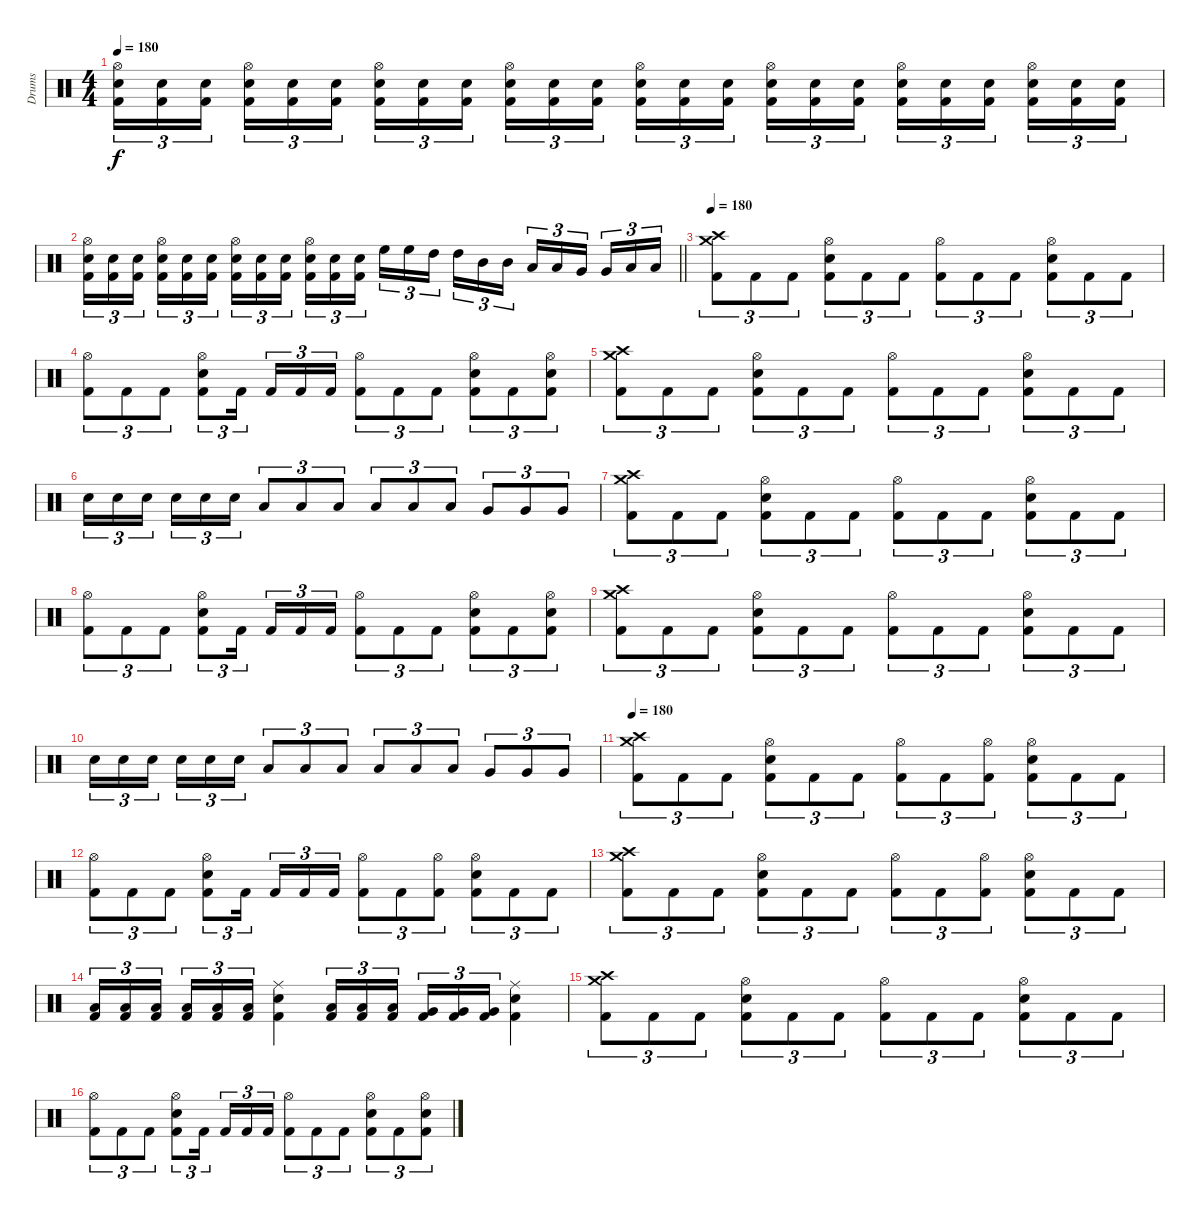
\track ("Drums" "Drums") {instrument percussion}
\staff {score}
\articulation defaults
\ts (4 4)
\tempo 180
\clef neutral
\ks c
("Hi-Hat (open)" "Electric Snare (hit)" "Kick (hit) 2").16{tu (3 2) dy f} ("Electric Snare (hit)" "Kick (hit) 2").16{tu (3 2)} ("Electric Snare (hit)" "Kick (hit) 2").16{tu (3 2) beam splitsecondary} ("Hi-Hat (open)" "Electric Snare (hit)" "Kick (hit) 2").16{tu (3 2)} ("Electric Snare (hit)" "Kick (hit) 2").16{tu (3 2)} ("Electric Snare (hit)" "Kick (hit) 2").16{tu (3 2)} ("Hi-Hat (open)" "Electric Snare (hit)" "Kick (hit) 2").16{tu (3 2)} ("Electric Snare (hit)" "Kick (hit) 2").16{tu (3 2)} ("Electric Snare (hit)" "Kick (hit) 2").16{tu (3 2) beam splitsecondary} ("Hi-Hat (open)" "Electric Snare (hit)" "Kick (hit) 2").16{tu (3 2)} ("Electric Snare (hit)" "Kick (hit) 2").16{tu (3 2)} ("Electric Snare (hit)" "Kick (hit) 2").16{tu (3 2)} ("Hi-Hat (open)" "Electric Snare (hit)" "Kick (hit) 2").16{tu (3 2)} ("Electric Snare (hit)" "Kick (hit) 2").16{tu (3 2)} ("Electric Snare (hit)" "Kick (hit) 2").16{tu (3 2) beam splitsecondary} ("Hi-Hat (open)" "Electric Snare (hit)" "Kick (hit) 2").16{tu (3 2)} ("Electric Snare (hit)" "Kick (hit) 2").16{tu (3 2)} ("Electric Snare (hit)" "Kick (hit) 2").16{tu (3 2)} ("Hi-Hat (open)" "Electric Snare (hit)" "Kick (hit) 2").16{tu (3 2)} ("Electric Snare (hit)" "Kick (hit) 2").16{tu (3 2)} ("Electric Snare (hit)" "Kick (hit) 2").16{tu (3 2) beam splitsecondary} ("Hi-Hat (open)" "Electric Snare (hit)" "Kick (hit) 2").16{tu (3 2)} ("Electric Snare (hit)" "Kick (hit) 2").16{tu (3 2)} ("Electric Snare (hit)" "Kick (hit) 2").16{tu (3 2)} |
\barLineRight lightlight
("Hi-Hat (open)" "Electric Snare (hit)" "Kick (hit) 2").16{tu (3 2)} ("Electric Snare (hit)" "Kick (hit) 2").16{tu (3 2)} ("Electric Snare (hit)" "Kick (hit) 2").16{tu (3 2) beam splitsecondary} ("Hi-Hat (open)" "Electric Snare (hit)" "Kick (hit) 2").16{tu (3 2)} ("Electric Snare (hit)" "Kick (hit) 2").16{tu (3 2)} ("Electric Snare (hit)" "Kick (hit) 2").16{tu (3 2)} ("Hi-Hat (open)" "Electric Snare (hit)" "Kick (hit) 2").16{tu (3 2)} ("Electric Snare (hit)" "Kick (hit) 2").16{tu (3 2)} ("Electric Snare (hit)" "Kick (hit) 2").16{tu (3 2) beam splitsecondary} ("Hi-Hat (open)" "Electric Snare (hit)" "Kick (hit) 2").16{tu (3 2)} ("Electric Snare (hit)" "Kick (hit) 2").16{tu (3 2)} ("Electric Snare (hit)" "Kick (hit) 2").16{tu (3 2)} "High Floor Tom (hit)".16{tu (3 2)} "High Floor Tom (hit)".16{tu (3 2)} "High Tom (hit)".16{tu (3 2) beam splitsecondary} "High Tom (hit)".16{tu (3 2)} "Mid Tom (hit)".16{tu (3 2)} "Mid Tom (hit)".16{tu (3 2)} "Low Tom (hit)".16{tu (3 2)} "Low Tom (hit)".16{tu (3 2)} "Very Low Tom (hit)".16{tu (3 2) beam splitsecondary} "Very Low Tom (hit)".16{tu (3 2)} "Low Floor Tom (hit)".16{tu (3 2)} "Low Floor Tom (hit)".16{tu (3 2)} |
\section ("" "")
\tempo 180
("Crash medium (hit)" "Crash high (hit)" "Kick (hit) 2").8{tu (3 2)} "Kick (hit) 2".8{tu (3 2)} "Kick (hit) 2".8{tu (3 2)} ("Hi-Hat (open)" "Electric Snare (hit)" "Kick (hit) 2").8{tu (3 2)} "Kick (hit) 2".8{tu (3 2)} "Kick (hit) 2".8{tu (3 2)} ("Hi-Hat (open)" "Kick (hit) 2").8{tu (3 2)} "Kick (hit) 2".8{tu (3 2)} "Kick (hit) 2".8{tu (3 2)} ("Hi-Hat (open)" "Electric Snare (hit)" "Kick (hit) 2").8{tu (3 2)} "Kick (hit) 2".8{tu (3 2)} "Kick (hit) 2".8{tu (3 2)} |
("Hi-Hat (open)" "Kick (hit) 2").8{tu (3 2)} "Kick (hit) 2".8{tu (3 2)} "Kick (hit) 2".8{tu (3 2)} ("Hi-Hat (open)" "Electric Snare (hit)" "Kick (hit) 2").8{tu (3 2)} "Kick (hit) 2".16{tu (3 2) beam splitsecondary} "Kick (hit) 2".16{tu (3 2)} "Kick (hit) 2".16{tu (3 2)} "Kick (hit) 2".16{tu (3 2)} ("Hi-Hat (open)" "Kick (hit) 2").8{tu (3 2)} "Kick (hit) 2".8{tu (3 2)} "Kick (hit) 2".8{tu (3 2)} ("Hi-Hat (open)" "Electric Snare (hit)" "Kick (hit) 2").8{tu (3 2)} "Kick (hit) 2".8{tu (3 2)} ("Hi-Hat (open)" "Electric Snare (hit)" "Kick (hit) 2").8{tu (3 2)} |
("Crash medium (hit)" "Crash high (hit)" "Kick (hit) 2").8{tu (3 2)} "Kick (hit) 2".8{tu (3 2)} "Kick (hit) 2".8{tu (3 2)} ("Hi-Hat (open)" "Electric Snare (hit)" "Kick (hit) 2").8{tu (3 2)} "Kick (hit) 2".8{tu (3 2)} "Kick (hit) 2".8{tu (3 2)} ("Hi-Hat (open)" "Kick (hit) 2").8{tu (3 2)} "Kick (hit) 2".8{tu (3 2)} "Kick (hit) 2".8{tu (3 2)} ("Hi-Hat (open)" "Electric Snare (hit)" "Kick (hit) 2").8{tu (3 2)} "Kick (hit) 2".8{tu (3 2)} "Kick (hit) 2".8{tu (3 2)} |
"Electric Snare (hit)".16{tu (3 2)} "Electric Snare (hit)".16{tu (3 2)} "Electric Snare (hit)".16{tu (3 2) beam splitsecondary} "Electric Snare (hit)".16{tu (3 2)} "Electric Snare (hit)".16{tu (3 2)} "Electric Snare (hit)".16{tu (3 2)} "Low Floor Tom (hit)".8{tu (3 2)} "Low Floor Tom (hit)".8{tu (3 2)} "Low Floor Tom (hit)".8{tu (3 2)} "Low Tom (hit)".8{tu (3 2)} "Low Tom (hit)".8{tu (3 2)} "Low Tom (hit)".8{tu (3 2)} "Very Low Tom (hit)".8{tu (3 2)} "Very Low Tom (hit)".8{tu (3 2)} "Very Low Tom (hit)".8{tu (3 2)} |
("Crash medium (hit)" "Crash high (hit)" "Kick (hit) 2").8{tu (3 2)} "Kick (hit) 2".8{tu (3 2)} "Kick (hit) 2".8{tu (3 2)} ("Hi-Hat (open)" "Electric Snare (hit)" "Kick (hit) 2").8{tu (3 2)} "Kick (hit) 2".8{tu (3 2)} "Kick (hit) 2".8{tu (3 2)} ("Hi-Hat (open)" "Kick (hit) 2").8{tu (3 2)} "Kick (hit) 2".8{tu (3 2)} "Kick (hit) 2".8{tu (3 2)} ("Hi-Hat (open)" "Electric Snare (hit)" "Kick (hit) 2").8{tu (3 2)} "Kick (hit) 2".8{tu (3 2)} "Kick (hit) 2".8{tu (3 2)} |
("Hi-Hat (open)" "Kick (hit) 2").8{tu (3 2)} "Kick (hit) 2".8{tu (3 2)} "Kick (hit) 2".8{tu (3 2)} ("Hi-Hat (open)" "Electric Snare (hit)" "Kick (hit) 2").8{tu (3 2)} "Kick (hit) 2".16{tu (3 2) beam splitsecondary} "Kick (hit) 2".16{tu (3 2)} "Kick (hit) 2".16{tu (3 2)} "Kick (hit) 2".16{tu (3 2)} ("Hi-Hat (open)" "Kick (hit) 2").8{tu (3 2)} "Kick (hit) 2".8{tu (3 2)} "Kick (hit) 2".8{tu (3 2)} ("Hi-Hat (open)" "Electric Snare (hit)" "Kick (hit) 2").8{tu (3 2)} "Kick (hit) 2".8{tu (3 2)} ("Hi-Hat (open)" "Electric Snare (hit)" "Kick (hit) 2").8{tu (3 2)} |
("Crash medium (hit)" "Crash high (hit)" "Kick (hit) 2").8{tu (3 2)} "Kick (hit) 2".8{tu (3 2)} "Kick (hit) 2".8{tu (3 2)} ("Hi-Hat (open)" "Electric Snare (hit)" "Kick (hit) 2").8{tu (3 2)} "Kick (hit) 2".8{tu (3 2)} "Kick (hit) 2".8{tu (3 2)} ("Hi-Hat (open)" "Kick (hit) 2").8{tu (3 2)} "Kick (hit) 2".8{tu (3 2)} "Kick (hit) 2".8{tu (3 2)} ("Hi-Hat (open)" "Electric Snare (hit)" "Kick (hit) 2").8{tu (3 2)} "Kick (hit) 2".8{tu (3 2)} "Kick (hit) 2".8{tu (3 2)} |
"Electric Snare (hit)".16{tu (3 2)} "Electric Snare (hit)".16{tu (3 2)} "Electric Snare (hit)".16{tu (3 2) beam splitsecondary} "Electric Snare (hit)".16{tu (3 2)} "Electric Snare (hit)".16{tu (3 2)} "Electric Snare (hit)".16{tu (3 2)} "Low Floor Tom (hit)".8{tu (3 2)} "Low Floor Tom (hit)".8{tu (3 2)} "Low Floor Tom (hit)".8{tu (3 2)} "Low Tom (hit)".8{tu (3 2)} "Low Tom (hit)".8{tu (3 2)} "Low Tom (hit)".8{tu (3 2)} "Very Low Tom (hit)".8{tu (3 2)} "Very Low Tom (hit)".8{tu (3 2)} "Very Low Tom (hit)".8{tu (3 2)} |
\tempo 180
("Crash medium (hit)" "Crash high (hit)" "Kick (hit) 2").8{tu (3 2)} "Kick (hit) 2".8{tu (3 2)} "Kick (hit) 2".8{tu (3 2)} ("Hi-Hat (open)" "Electric Snare (hit)" "Kick (hit) 2").8{tu (3 2)} "Kick (hit) 2".8{tu (3 2)} "Kick (hit) 2".8{tu (3 2)} ("Hi-Hat (open)" "Kick (hit) 2").8{tu (3 2)} "Kick (hit) 2".8{tu (3 2)} ("Hi-Hat (open)" "Kick (hit) 2").8{tu (3 2)} ("Hi-Hat (open)" "Electric Snare (hit)" "Kick (hit) 2").8{tu (3 2)} "Kick (hit) 2".8{tu (3 2)} "Kick (hit) 2".8{tu (3 2)} |
("Hi-Hat (open)" "Kick (hit) 2").8{tu (3 2)} "Kick (hit) 2".8{tu (3 2)} "Kick (hit) 2".8{tu (3 2)} ("Hi-Hat (open)" "Electric Snare (hit)" "Kick (hit) 2").8{tu (3 2)} "Kick (hit) 2".16{tu (3 2) beam splitsecondary} "Kick (hit) 2".16{tu (3 2)} "Kick (hit) 2".16{tu (3 2)} "Kick (hit) 2".16{tu (3 2)} ("Hi-Hat (open)" "Kick (hit) 2").8{tu (3 2)} "Kick (hit) 2".8{tu (3 2)} ("Hi-Hat (open)" "Kick (hit) 2").8{tu (3 2)} ("Hi-Hat (open)" "Electric Snare (hit)" "Kick (hit) 2").8{tu (3 2)} "Kick (hit) 2".8{tu (3 2)} "Kick (hit) 2".8{tu (3 2)} |
("Crash medium (hit)" "Crash high (hit)" "Kick (hit) 2").8{tu (3 2)} "Kick (hit) 2".8{tu (3 2)} "Kick (hit) 2".8{tu (3 2)} ("Hi-Hat (open)" "Electric Snare (hit)" "Kick (hit) 2").8{tu (3 2)} "Kick (hit) 2".8{tu (3 2)} "Kick (hit) 2".8{tu (3 2)} ("Hi-Hat (open)" "Kick (hit) 2").8{tu (3 2)} "Kick (hit) 2".8{tu (3 2)} ("Hi-Hat (open)" "Kick (hit) 2").8{tu (3 2)} ("Hi-Hat (open)" "Electric Snare (hit)" "Kick (hit) 2").8{tu (3 2)} "Kick (hit) 2".8{tu (3 2)} "Kick (hit) 2".8{tu (3 2)} |
("Low Floor Tom (hit)" "Kick (hit) 2").16{tu (3 2)} ("Low Floor Tom (hit)" "Kick (hit) 2").16{tu (3 2)} ("Low Floor Tom (hit)" "Kick (hit) 2").16{tu (3 2) beam splitsecondary} ("Low Floor Tom (hit)" "Kick (hit) 2").16{tu (3 2)} ("Low Floor Tom (hit)" "Kick (hit) 2").16{tu (3 2)} ("Low Floor Tom (hit)" "Kick (hit) 2").16{tu (3 2)} ("Ride (middle)" "Electric Snare (hit)" "Kick (hit) 2").4 ("Low Tom (hit)" "Kick (hit) 2").16{tu (3 2)} ("Low Tom (hit)" "Kick (hit) 2").16{tu (3 2)} ("Low Tom (hit)" "Kick (hit) 2").16{tu (3 2) beam splitsecondary} ("Very Low Tom (hit)" "Kick (hit) 2").16{tu (3 2)} ("Very Low Tom (hit)" "Kick (hit) 2").16{tu (3 2)} ("Very Low Tom (hit)" "Kick (hit) 2").16{tu (3 2)} ("Ride (middle)" "Electric Snare (hit)" "Kick (hit) 2").4 |
("Crash medium (hit)" "Crash high (hit)" "Kick (hit) 2").8{tu (3 2)} "Kick (hit) 2".8{tu (3 2)} "Kick (hit) 2".8{tu (3 2)} ("Hi-Hat (open)" "Electric Snare (hit)" "Kick (hit) 2").8{tu (3 2)} "Kick (hit) 2".8{tu (3 2)} "Kick (hit) 2".8{tu (3 2)} ("Hi-Hat (open)" "Kick (hit) 2").8{tu (3 2)} "Kick (hit) 2".8{tu (3 2)} "Kick (hit) 2".8{tu (3 2)} ("Hi-Hat (open)" "Electric Snare (hit)" "Kick (hit) 2").8{tu (3 2)} "Kick (hit) 2".8{tu (3 2)} "Kick (hit) 2".8{tu (3 2)} |
("Hi-Hat (open)" "Kick (hit) 2").8{tu (3 2)} "Kick (hit) 2".8{tu (3 2)} "Kick (hit) 2".8{tu (3 2)} ("Hi-Hat (open)" "Electric Snare (hit)" "Kick (hit) 2").8{tu (3 2)} "Kick (hit) 2".16{tu (3 2) beam splitsecondary} "Kick (hit) 2".16{tu (3 2)} "Kick (hit) 2".16{tu (3 2)} "Kick (hit) 2".16{tu (3 2)} ("Hi-Hat (open)" "Kick (hit) 2").8{tu (3 2)} "Kick (hit) 2".8{tu (3 2)} "Kick (hit) 2".8{tu (3 2)} ("Hi-Hat (open)" "Electric Snare (hit)" "Kick (hit) 2").8{tu (3 2)} "Kick (hit) 2".8{tu (3 2)} ("Hi-Hat (open)" "Electric Snare (hit)" "Kick (hit) 2").8{tu (3 2)}
